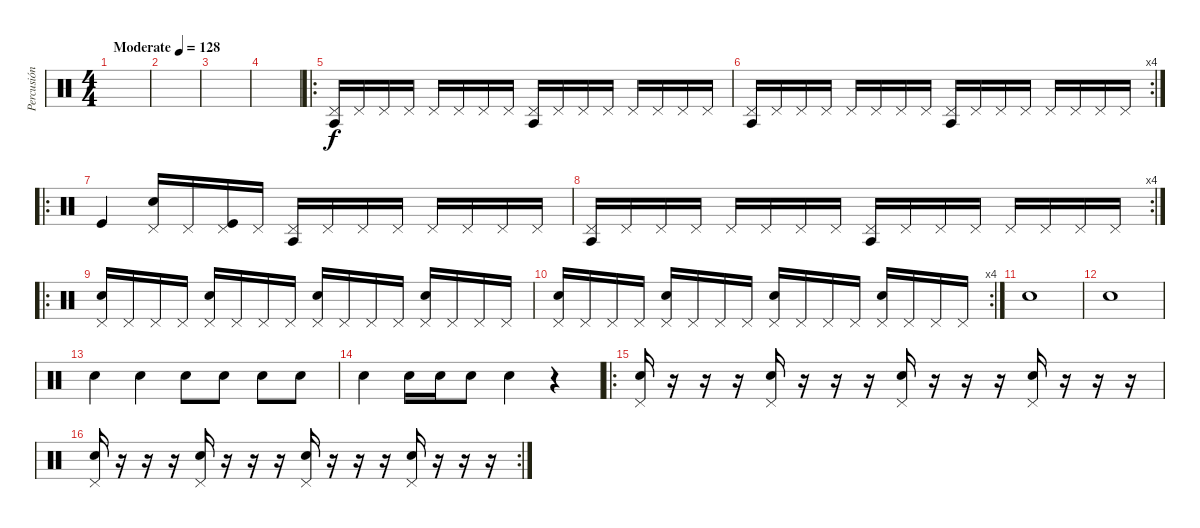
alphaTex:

\track ("Percusión" "Percusión") {instrument percussion}
\staff {score}
\articulation defaults
\ts (4 4)
\tempo (128 "Moderate")
\clef neutral
\ks c
|
|
|
|
\ro
("Agogo tow (hit)" "Pedal Hi-Hat (hit)").16 "Pedal Hi-Hat (hit)".16 "Pedal Hi-Hat (hit)".16 "Pedal Hi-Hat (hit)".16 "Pedal Hi-Hat (hit)".16 "Pedal Hi-Hat (hit)".16 "Pedal Hi-Hat (hit)".16 "Pedal Hi-Hat (hit)".16 ("Agogo tow (hit)" "Pedal Hi-Hat (hit)").16 "Pedal Hi-Hat (hit)".16 "Pedal Hi-Hat (hit)".16 "Pedal Hi-Hat (hit)".16 "Pedal Hi-Hat (hit)".16 "Pedal Hi-Hat (hit)".16 "Pedal Hi-Hat (hit)".16 "Pedal Hi-Hat (hit)".16 |
\rc 4
("Agogo tow (hit)" "Pedal Hi-Hat (hit)").16 "Pedal Hi-Hat (hit)".16 "Pedal Hi-Hat (hit)".16 "Pedal Hi-Hat (hit)".16 "Pedal Hi-Hat (hit)".16 "Pedal Hi-Hat (hit)".16 "Pedal Hi-Hat (hit)".16 "Pedal Hi-Hat (hit)".16 ("Agogo tow (hit)" "Pedal Hi-Hat (hit)").16 "Pedal Hi-Hat (hit)".16 "Pedal Hi-Hat (hit)".16 "Pedal Hi-Hat (hit)".16 "Pedal Hi-Hat (hit)".16 "Pedal Hi-Hat (hit)".16 "Pedal Hi-Hat (hit)".16 "Pedal Hi-Hat (hit)".16 |
\ro "Kick (hit)".4
("Snare (hit) 2" "Pedal Hi-Hat (hit)").16 "Pedal Hi-Hat (hit)".16 ("Kick (hit)" "Pedal Hi-Hat (hit)").16 "Pedal Hi-Hat (hit)".16 ("Agogo tow (hit)" "Pedal Hi-Hat (hit)").16 "Pedal Hi-Hat (hit)".16 "Pedal Hi-Hat (hit)".16 "Pedal Hi-Hat (hit)".16 "Pedal Hi-Hat (hit)".16 "Pedal Hi-Hat (hit)".16 "Pedal Hi-Hat (hit)".16 "Pedal Hi-Hat (hit)".16 |
\rc 4
("Agogo tow (hit)" "Pedal Hi-Hat (hit)").16 "Pedal Hi-Hat (hit)".16 "Pedal Hi-Hat (hit)".16 "Pedal Hi-Hat (hit)".16 "Pedal Hi-Hat (hit)".16 "Pedal Hi-Hat (hit)".16 "Pedal Hi-Hat (hit)".16 "Pedal Hi-Hat (hit)".16 ("Agogo tow (hit)" "Pedal Hi-Hat (hit)").16 "Pedal Hi-Hat (hit)".16 "Pedal Hi-Hat (hit)".16 "Pedal Hi-Hat (hit)".16 "Pedal Hi-Hat (hit)".16 "Pedal Hi-Hat (hit)".16 "Pedal Hi-Hat (hit)".16 "Pedal Hi-Hat (hit)".16 |
\ro
("Hand Clap (hit)" "Pedal Hi-Hat (hit)").16 "Pedal Hi-Hat (hit)".16 "Pedal Hi-Hat (hit)".16 "Pedal Hi-Hat (hit)".16 ("Hand Clap (hit)" "Pedal Hi-Hat (hit)").16 "Pedal Hi-Hat (hit)".16 "Pedal Hi-Hat (hit)".16 "Pedal Hi-Hat (hit)".16 ("Hand Clap (hit)" "Pedal Hi-Hat (hit)").16 "Pedal Hi-Hat (hit)".16 "Pedal Hi-Hat (hit)".16 "Pedal Hi-Hat (hit)".16 ("Hand Clap (hit)" "Pedal Hi-Hat (hit)").16 "Pedal Hi-Hat (hit)".16 "Pedal Hi-Hat (hit)".16 "Pedal Hi-Hat (hit)".16 |
\rc 4
("Hand Clap (hit)" "Pedal Hi-Hat (hit)").16 "Pedal Hi-Hat (hit)".16 "Pedal Hi-Hat (hit)".16 "Pedal Hi-Hat (hit)".16 ("Hand Clap (hit)" "Pedal Hi-Hat (hit)").16 "Pedal Hi-Hat (hit)".16 "Pedal Hi-Hat (hit)".16 "Pedal Hi-Hat (hit)".16 ("Hand Clap (hit)" "Pedal Hi-Hat (hit)").16 "Pedal Hi-Hat (hit)".16 "Pedal Hi-Hat (hit)".16 "Pedal Hi-Hat (hit)".16 ("Hand Clap (hit)" "Pedal Hi-Hat (hit)").16 "Pedal Hi-Hat (hit)".16 "Pedal Hi-Hat (hit)".16 "Pedal Hi-Hat (hit)".16 |
"Electric Snare (hit)".1 |
"Electric Snare (hit)".1 |
"Electric Snare (hit)".4 "Electric Snare (hit)".4 "Electric Snare (hit)".8 "Electric Snare (hit)".8 "Electric Snare (hit)".8 "Electric Snare (hit)".8 |
"Electric Snare (hit)".4 "Electric Snare (hit)".16 "Electric Snare (hit)".16 "Electric Snare (hit)".8 "Electric Snare (hit)".4 r.4 |
\ro
("Hand Clap (hit)" "Pedal Hi-Hat (hit)").16 r.16 r.16 r.16 ("Hand Clap (hit)" "Pedal Hi-Hat (hit)").16 r.16 r.16 r.16 ("Hand Clap (hit)" "Pedal Hi-Hat (hit)").16 r.16 r.16 r.16 ("Hand Clap (hit)" "Pedal Hi-Hat (hit)").16 r.16 r.16 r.16 |
\rc 2
("Hand Clap (hit)" "Pedal Hi-Hat (hit)").16 r.16 r.16 r.16 ("Hand Clap (hit)" "Pedal Hi-Hat (hit)").16 r.16 r.16 r.16 ("Hand Clap (hit)" "Pedal Hi-Hat (hit)").16 r.16 r.16 r.16 ("Hand Clap (hit)" "Pedal Hi-Hat (hit)").16 r.16 r.16 r.16
